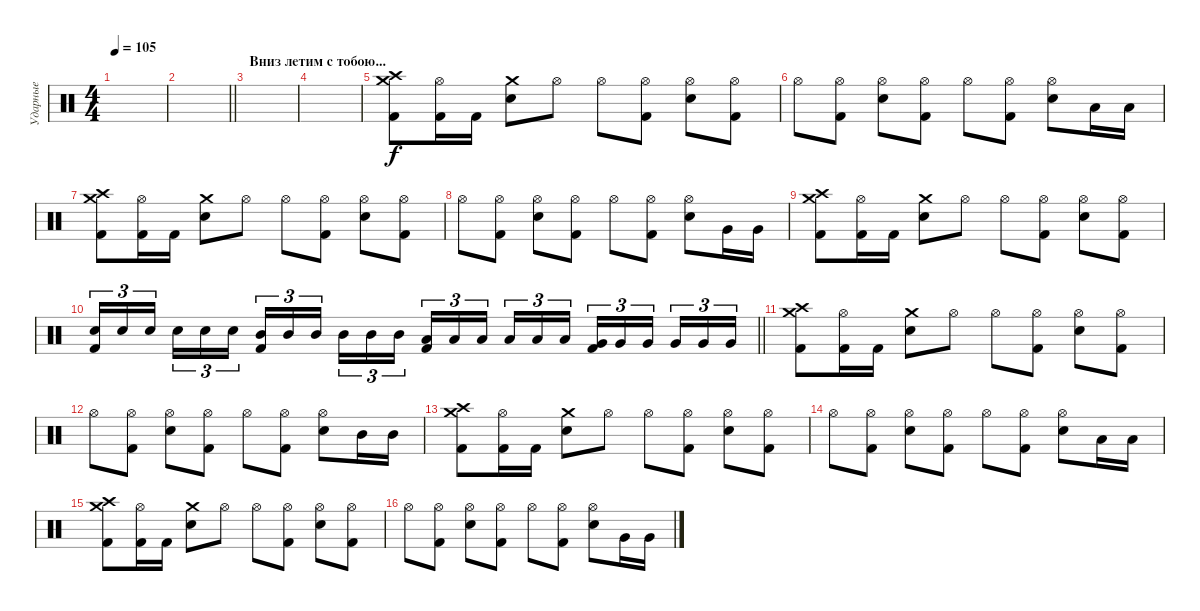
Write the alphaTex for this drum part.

\track ("Ударные" "Ударные") {instrument percussion}
\staff
\articulation defaults
\ts (4 4)
\tempo 105
\clef neutral
\ks c
|
\barLineRight lightlight
|
\section ("" "Вниз летим с тобою...")
|
|
("Crash medium (hit)" "Crash high (hit)" "Kick (hit) 2").8 ("Hi-Hat (open)" "Kick (hit) 2").16 "Kick (hit) 2".16 ("Crash medium (hit)" "Electric Snare (hit)").8 "Hi-Hat (open)".8 "Hi-Hat (open)".8 ("Hi-Hat (open)" "Kick (hit) 2").8 ("Hi-Hat (open)" "Electric Snare (hit)").8 ("Hi-Hat (open)" "Kick (hit) 2").8 |
"Hi-Hat (open)".8 ("Hi-Hat (open)" "Kick (hit) 2").8 ("Hi-Hat (open)" "Electric Snare (hit)").8 ("Hi-Hat (open)" "Kick (hit) 2").8 "Hi-Hat (open)".8 ("Hi-Hat (open)" "Kick (hit) 2").8 ("Hi-Hat (open)" "Electric Snare (hit)").8 "Low Tom (hit)".16 "Low Tom (hit)".16 |
("Crash medium (hit)" "Crash high (hit)" "Kick (hit) 2").8 ("Hi-Hat (open)" "Kick (hit) 2").16 "Kick (hit) 2".16 ("Crash medium (hit)" "Electric Snare (hit)").8 "Hi-Hat (open)".8 "Hi-Hat (open)".8 ("Hi-Hat (open)" "Kick (hit) 2").8 ("Hi-Hat (open)" "Electric Snare (hit)").8 ("Hi-Hat (open)" "Kick (hit) 2").8 |
"Hi-Hat (open)".8 ("Hi-Hat (open)" "Kick (hit) 2").8 ("Hi-Hat (open)" "Electric Snare (hit)").8 ("Hi-Hat (open)" "Kick (hit) 2").8 "Hi-Hat (open)".8 ("Hi-Hat (open)" "Kick (hit) 2").8 ("Hi-Hat (open)" "Electric Snare (hit)").8 "Very Low Tom (hit)".16 "Very Low Tom (hit)".16 |
("Crash medium (hit)" "Crash high (hit)" "Kick (hit) 2").8 ("Hi-Hat (open)" "Kick (hit) 2").16 "Kick (hit) 2".16 ("Crash medium (hit)" "Electric Snare (hit)").8 "Hi-Hat (open)".8 "Hi-Hat (open)".8 ("Hi-Hat (open)" "Kick (hit) 2").8 ("Hi-Hat (open)" "Electric Snare (hit)").8 ("Hi-Hat (open)" "Kick (hit) 2").8 |
\barLineRight lightlight
("Electric Snare (hit)" "Kick (hit) 2").16{tu (3 2)} "Electric Snare (hit)".16{tu (3 2)} "Electric Snare (hit)".16{tu (3 2) beam splitsecondary} "Electric Snare (hit)".16{tu (3 2)} "Electric Snare (hit)".16{tu (3 2)} "Electric Snare (hit)".16{tu (3 2)} ("Mid Tom (hit)" "Kick (hit) 2").16{tu (3 2)} "Mid Tom (hit)".16{tu (3 2)} "Mid Tom (hit)".16{tu (3 2) beam splitsecondary} "Mid Tom (hit)".16{tu (3 2)} "Mid Tom (hit)".16{tu (3 2)} "Mid Tom (hit)".16{tu (3 2)} ("Low Tom (hit)" "Kick (hit) 2").16{tu (3 2)} "Low Tom (hit)".16{tu (3 2)} "Low Tom (hit)".16{tu (3 2) beam splitsecondary} "Low Tom (hit)".16{tu (3 2)} "Low Tom (hit)".16{tu (3 2)} "Low Tom (hit)".16{tu (3 2)} ("Very Low Tom (hit)" "Kick (hit) 2").16{tu (3 2)} "Very Low Tom (hit)".16{tu (3 2)} "Very Low Tom (hit)".16{tu (3 2) beam splitsecondary} "Very Low Tom (hit)".16{tu (3 2)} "Very Low Tom (hit)".16{tu (3 2)} "Very Low Tom (hit)".16{tu (3 2)} |
("Crash medium (hit)" "Crash high (hit)" "Kick (hit) 2").8 ("Hi-Hat (open)" "Kick (hit) 2").16 "Kick (hit) 2".16 ("Crash medium (hit)" "Electric Snare (hit)").8 "Hi-Hat (open)".8 "Hi-Hat (open)".8 ("Hi-Hat (open)" "Kick (hit) 2").8 ("Hi-Hat (open)" "Electric Snare (hit)").8 ("Hi-Hat (open)" "Kick (hit) 2").8 |
"Hi-Hat (open)".8 ("Hi-Hat (open)" "Kick (hit) 2").8 ("Hi-Hat (open)" "Electric Snare (hit)").8 ("Hi-Hat (open)" "Kick (hit) 2").8 "Hi-Hat (open)".8 ("Hi-Hat (open)" "Kick (hit) 2").8 ("Hi-Hat (open)" "Electric Snare (hit)").8 "Mid Tom (hit)".16 "Mid Tom (hit)".16 |
("Crash medium (hit)" "Crash high (hit)" "Kick (hit) 2").8 ("Hi-Hat (open)" "Kick (hit) 2").16 "Kick (hit) 2".16 ("Crash medium (hit)" "Electric Snare (hit)").8 "Hi-Hat (open)".8 "Hi-Hat (open)".8 ("Hi-Hat (open)" "Kick (hit) 2").8 ("Hi-Hat (open)" "Electric Snare (hit)").8 ("Hi-Hat (open)" "Kick (hit) 2").8 |
"Hi-Hat (open)".8 ("Hi-Hat (open)" "Kick (hit) 2").8 ("Hi-Hat (open)" "Electric Snare (hit)").8 ("Hi-Hat (open)" "Kick (hit) 2").8 "Hi-Hat (open)".8 ("Hi-Hat (open)" "Kick (hit) 2").8 ("Hi-Hat (open)" "Electric Snare (hit)").8 "Low Tom (hit)".16 "Low Tom (hit)".16 |
("Crash medium (hit)" "Crash high (hit)" "Kick (hit) 2").8 ("Hi-Hat (open)" "Kick (hit) 2").16 "Kick (hit) 2".16 ("Crash medium (hit)" "Electric Snare (hit)").8 "Hi-Hat (open)".8 "Hi-Hat (open)".8 ("Hi-Hat (open)" "Kick (hit) 2").8 ("Hi-Hat (open)" "Electric Snare (hit)").8 ("Hi-Hat (open)" "Kick (hit) 2").8 |
"Hi-Hat (open)".8 ("Hi-Hat (open)" "Kick (hit) 2").8 ("Hi-Hat (open)" "Electric Snare (hit)").8 ("Hi-Hat (open)" "Kick (hit) 2").8 "Hi-Hat (open)".8 ("Hi-Hat (open)" "Kick (hit) 2").8 ("Hi-Hat (open)" "Electric Snare (hit)").8 "Very Low Tom (hit)".16 "Very Low Tom (hit)".16
